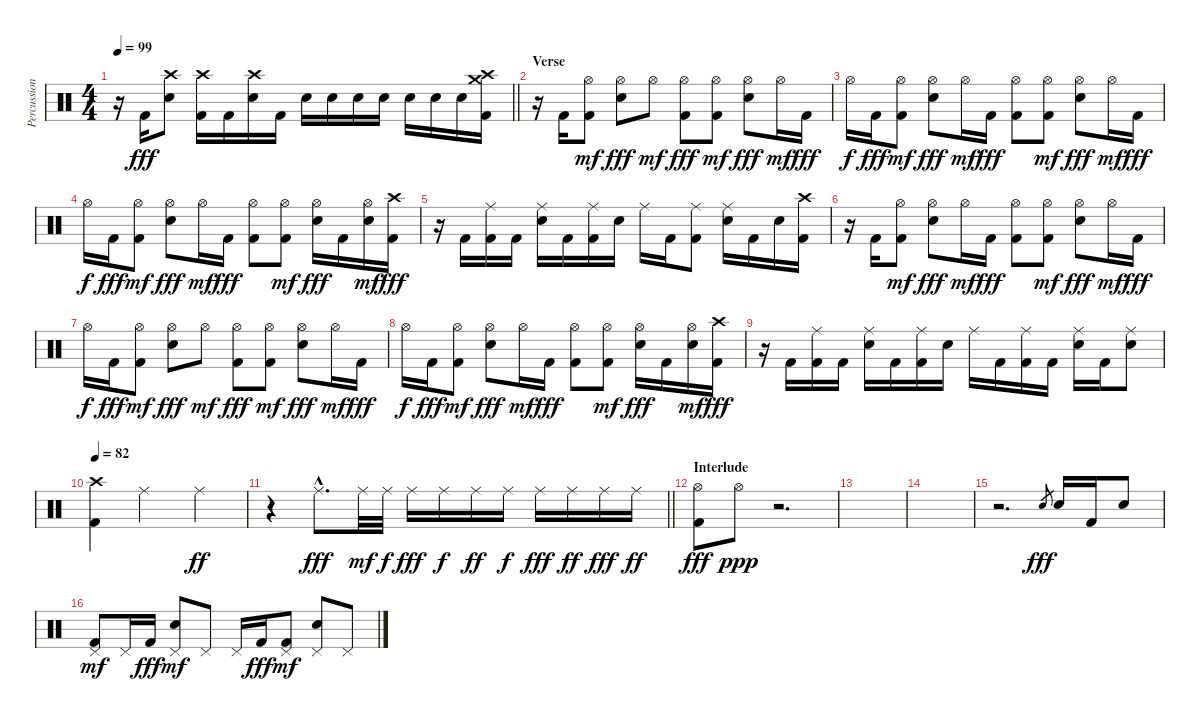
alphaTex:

\track ("Percussions" "Percussion") {instrument percussion}
\staff {score}
\articulation defaults
\ts (4 4)
\tempo 99
\clef neutral
\barLineRight lightlight
\ks c
r.16{dy fff} "Kick (hit) 2".16 ("Snare (hit) 2" "Crash high (hit)").8 ("Kick (hit) 2" "Crash high (hit)").16 "Kick (hit) 2".16 ("Snare (hit) 2" "Crash high (hit)").16 "Kick (hit) 2".16 "Snare (hit) 2".16 "Snare (hit) 2".16 "Snare (hit) 2".16 "Snare (hit) 2".16 "Snare (hit) 2".16 "Snare (hit) 2".16 "Snare (hit) 2".16 ("Kick (hit) 2" "Crash medium (hit)" "Crash high (hit)").16 |
\section ("" "Verse")
r.16 "Kick (hit) 2".16 ("Kick (hit) 2" "Hi-Hat (open)").8{dy mf} ("Snare (hit) 2" "Hi-Hat (open)").8{dy fff} "Hi-Hat (open)".8{dy mf} ("Kick (hit) 2" "Hi-Hat (open)").8{dy fff} ("Kick (hit) 2" "Hi-Hat (open)").8{dy mf} ("Snare (hit) 2" "Hi-Hat (open)").8{dy fff} "Hi-Hat (open)".16{dy mf} "Kick (hit) 2".16{dy fff} |
"Hi-Hat (open)".16{dy f} "Kick (hit) 2".16{dy fff} ("Kick (hit) 2" "Hi-Hat (open)").8{dy mf} ("Snare (hit) 2" "Hi-Hat (open)").8{dy fff} "Hi-Hat (open)".16{dy mf} "Kick (hit) 2".16{dy fff} ("Kick (hit) 2" "Hi-Hat (open)").8 ("Kick (hit) 2" "Hi-Hat (open)").8{dy mf} ("Snare (hit) 2" "Hi-Hat (open)").8{dy fff} "Hi-Hat (open)".16{dy mf} "Kick (hit) 2".16{dy fff} |
"Hi-Hat (open)".16{dy f} "Kick (hit) 2".16{dy fff} ("Kick (hit) 2" "Hi-Hat (open)").8{dy mf} ("Snare (hit) 2" "Hi-Hat (open)").8{dy fff} "Hi-Hat (open)".16{dy mf} "Kick (hit) 2".16{dy fff} ("Kick (hit) 2" "Hi-Hat (open)").8 ("Kick (hit) 2" "Hi-Hat (open)").8{dy mf} ("Snare (hit) 2" "Hi-Hat (open)").16{dy fff} "Kick (hit) 2".16 ("Snare (hit) 2" "Hi-Hat (open)").16{dy mf} ("Kick (hit) 2" "Crash high (hit)").16{dy fff} |
r.16 "Kick (hit) 2".16 ("Kick (hit) 2" "Ride (middle)").16 "Kick (hit) 2".16 ("Snare (hit) 2" "Ride (middle)").16 "Kick (hit) 2".16 ("Kick (hit) 2" "Ride (middle)").16 "Snare (hit) 2".16 "Ride (middle)".16 "Kick (hit) 2".16 ("Kick (hit) 2" "Ride (middle)").8 ("Snare (hit) 2" "Ride (middle)").16 "Kick (hit) 2".16 "Snare (hit) 2".16 ("Kick (hit) 2" "Crash high (hit)").16 |
r.16 "Kick (hit) 2".16 ("Kick (hit) 2" "Hi-Hat (open)").8{dy mf} ("Snare (hit) 2" "Hi-Hat (open)").8{dy fff} "Hi-Hat (open)".16{dy mf} "Kick (hit) 2".16{dy fff} ("Kick (hit) 2" "Hi-Hat (open)").8 ("Kick (hit) 2" "Hi-Hat (open)").8{dy mf} ("Snare (hit) 2" "Hi-Hat (open)").8{dy fff} "Hi-Hat (open)".16{dy mf} "Kick (hit) 2".16{dy fff} |
"Hi-Hat (open)".16{dy f} "Kick (hit) 2".16{dy fff} ("Kick (hit) 2" "Hi-Hat (open)").8{dy mf} ("Snare (hit) 2" "Hi-Hat (open)").8{dy fff} "Hi-Hat (open)".8{dy mf} ("Kick (hit) 2" "Hi-Hat (open)").8{dy fff} ("Kick (hit) 2" "Hi-Hat (open)").8{dy mf} ("Snare (hit) 2" "Hi-Hat (open)").8{dy fff} "Hi-Hat (open)".16{dy mf} "Kick (hit) 2".16{dy fff} |
"Hi-Hat (open)".16{dy f} "Kick (hit) 2".16{dy fff} ("Kick (hit) 2" "Hi-Hat (open)").8{dy mf} ("Snare (hit) 2" "Hi-Hat (open)").8{dy fff} "Hi-Hat (open)".16{dy mf} "Kick (hit) 2".16{dy fff} ("Kick (hit) 2" "Hi-Hat (open)").8 ("Kick (hit) 2" "Hi-Hat (open)").8{dy mf} ("Snare (hit) 2" "Hi-Hat (open)").16{dy fff} "Kick (hit) 2".16 ("Snare (hit) 2" "Hi-Hat (open)").16{dy mf} ("Kick (hit) 2" "Crash high (hit)").16{dy fff} |
r.16 "Kick (hit) 2".16 ("Kick (hit) 2" "Ride (middle)").16 "Kick (hit) 2".16 ("Snare (hit) 2" "Ride (middle)").16 "Kick (hit) 2".16 ("Kick (hit) 2" "Ride (middle)").16 "Snare (hit) 2".16 "Ride (middle)".16 "Kick (hit) 2".16 ("Kick (hit) 2" "Ride (middle)").16 "Kick (hit) 2".16 ("Snare (hit) 2" "Ride (middle)").16 "Kick (hit) 2".16 ("Snare (hit) 2" "Ride (middle)").8 |
\tempo 82
("Kick (hit) 2" "Crash high (hit)").4 "Ride (middle)".2 "Ride (middle)".4{dy ff} |
\barLineRight lightlight
r.4 "Ride (middle)"{hac}.8{d dy fff} "Ride (middle)".32{dy mf} "Ride (middle)".32{dy f} "Ride (middle)".16{dy fff} "Ride (middle)".16{dy f} "Ride (middle)".16{dy ff} "Ride (middle)".16{dy f} "Ride (middle)".16{dy fff} "Ride (middle)".16{dy ff} "Ride (middle)".16{dy fff} "Ride (middle)".16{dy ff} |
\section ("" "Interlude")
("Kick (hit) 2" "Hi-Hat (open)").8{dy fff} "Hi-Hat (open)".8{dy ppp} r.2{d} |
|
|
r.2{d} "Snare (hit) 2".8{gr dy fff} "Snare (hit) 2".16 "Kick (hit) 2".16 "Snare (hit) 2".8 |
("Kick (hit) 2" "Pedal Hi-Hat (hit)").8{dy mf} "Pedal Hi-Hat (hit)".16 "Kick (hit) 2".16{dy fff} ("Snare (hit) 2" "Pedal Hi-Hat (hit)").8{dy mf} "Pedal Hi-Hat (hit)".8 "Pedal Hi-Hat (hit)".16 "Kick (hit) 2".16{dy fff} ("Kick (hit) 2" "Pedal Hi-Hat (hit)").8{dy mf} ("Snare (hit) 2" "Pedal Hi-Hat (hit)").8 "Pedal Hi-Hat (hit)".8
